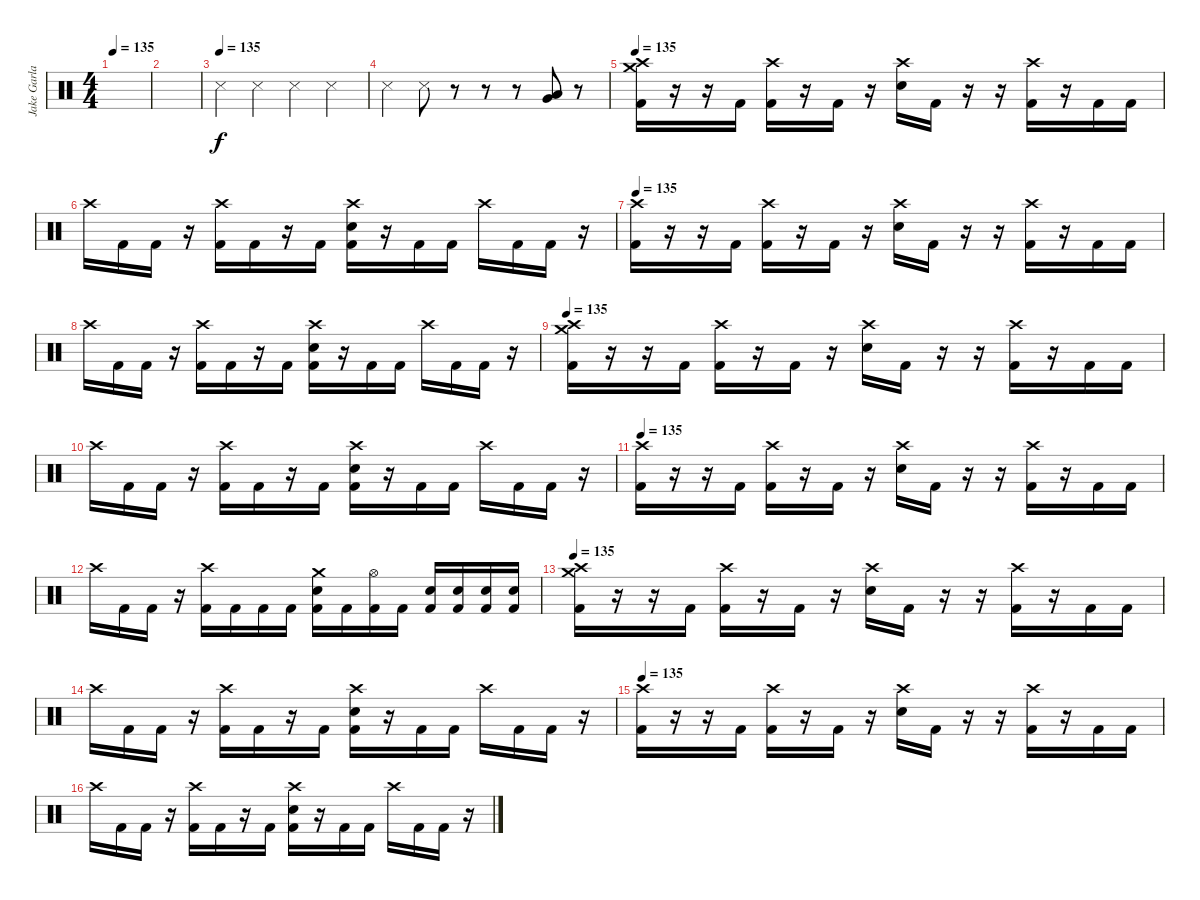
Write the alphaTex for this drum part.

\track ("Jake Garland" "Jake Garla") {instrument percussion}
\staff {score}
\articulation defaults
\ts (4 4)
\tempo 135
\clef neutral
\ks c
|
|
\tempo (135)
"Snare (side stick) 3".4 "Snare (side stick) 3".4 "Snare (side stick) 3".4 "Snare (side stick) 3".4 |
"Snare (side stick) 3".4 "Snare (side stick) 3".8 r.8 r.8 r.8 ("Low Floor Tom (hit)" "Very Low Tom (hit)").8 r.8 |
\tempo 135
("Crash high (hit)" "Crash medium (hit)" "Kick (hit) 2").16 r.16 r.16 "Kick (hit) 2".16 ("Crash high (hit)" "Kick (hit) 2").16 r.16 "Kick (hit) 2".16 r.16 ("Crash high (hit)" "Electric Snare (hit)").16 "Kick (hit) 2".16 r.16 r.16 ("Crash high (hit)" "Kick (hit) 2").16 r.16 "Kick (hit) 2".16 "Kick (hit) 2".16 |
"Crash high (hit)".16 "Kick (hit) 2".16 "Kick (hit) 2".16 r.16 ("Crash high (hit)" "Kick (hit) 2").16 "Kick (hit) 2".16 r.16 "Kick (hit) 2".16 ("Crash high (hit)" "Electric Snare (hit)" "Kick (hit) 2").16 r.16 "Kick (hit) 2".16 "Kick (hit) 2".16 "Crash high (hit)".16 "Kick (hit) 2".16 "Kick (hit) 2".16 r.16 |
\tempo 135
("Crash high (hit)" "Kick (hit) 2").16 r.16 r.16 "Kick (hit) 2".16 ("Crash high (hit)" "Kick (hit) 2").16 r.16 "Kick (hit) 2".16 r.16 ("Crash high (hit)" "Electric Snare (hit)").16 "Kick (hit) 2".16 r.16 r.16 ("Crash high (hit)" "Kick (hit) 2").16 r.16 "Kick (hit) 2".16 "Kick (hit) 2".16 |
"Crash high (hit)".16 "Kick (hit) 2".16 "Kick (hit) 2".16 r.16 ("Crash high (hit)" "Kick (hit) 2").16 "Kick (hit) 2".16 r.16 "Kick (hit) 2".16 ("Crash high (hit)" "Electric Snare (hit)" "Kick (hit) 2").16 r.16 "Kick (hit) 2".16 "Kick (hit) 2".16 "Crash high (hit)".16 "Kick (hit) 2".16 "Kick (hit) 2".16 r.16 |
\tempo 135
("Crash high (hit)" "Crash medium (hit)" "Kick (hit) 2").16 r.16 r.16 "Kick (hit) 2".16 ("Crash high (hit)" "Kick (hit) 2").16 r.16 "Kick (hit) 2".16 r.16 ("Crash high (hit)" "Electric Snare (hit)").16 "Kick (hit) 2".16 r.16 r.16 ("Crash high (hit)" "Kick (hit) 2").16 r.16 "Kick (hit) 2".16 "Kick (hit) 2".16 |
"Crash high (hit)".16 "Kick (hit) 2".16 "Kick (hit) 2".16 r.16 ("Crash high (hit)" "Kick (hit) 2").16 "Kick (hit) 2".16 r.16 "Kick (hit) 2".16 ("Crash high (hit)" "Electric Snare (hit)" "Kick (hit) 2").16 r.16 "Kick (hit) 2".16 "Kick (hit) 2".16 "Crash high (hit)".16 "Kick (hit) 2".16 "Kick (hit) 2".16 r.16 |
\tempo 135
("Crash high (hit)" "Kick (hit) 2").16 r.16 r.16 "Kick (hit) 2".16 ("Crash high (hit)" "Kick (hit) 2").16 r.16 "Kick (hit) 2".16 r.16 ("Crash high (hit)" "Electric Snare (hit)").16 "Kick (hit) 2".16 r.16 r.16 ("Crash high (hit)" "Kick (hit) 2").16 r.16 "Kick (hit) 2".16 "Kick (hit) 2".16 |
"Crash high (hit)".16 "Kick (hit) 2".16 "Kick (hit) 2".16 r.16 ("Crash high (hit)" "Kick (hit) 2").16 "Kick (hit) 2".16 "Kick (hit) 2".16 "Kick (hit) 2".16 ("Crash medium (hit)" "Electric Snare (hit)" "Kick (hit) 2").16 "Kick (hit) 2".16 ("Hi-Hat (open)" "Kick (hit) 2").16 "Kick (hit) 2".16 ("Electric Snare (hit)" "Kick (hit) 2").16 ("Electric Snare (hit)" "Kick (hit) 2").16 ("Electric Snare (hit)" "Kick (hit) 2").16 ("Electric Snare (hit)" "Kick (hit) 2").16 |
\tempo 135
("Crash high (hit)" "Crash medium (hit)" "Kick (hit) 2").16 r.16 r.16 "Kick (hit) 2".16 ("Crash high (hit)" "Kick (hit) 2").16 r.16 "Kick (hit) 2".16 r.16 ("Crash high (hit)" "Electric Snare (hit)").16 "Kick (hit) 2".16 r.16 r.16 ("Crash high (hit)" "Kick (hit) 2").16 r.16 "Kick (hit) 2".16 "Kick (hit) 2".16 |
"Crash high (hit)".16 "Kick (hit) 2".16 "Kick (hit) 2".16 r.16 ("Crash high (hit)" "Kick (hit) 2").16 "Kick (hit) 2".16 r.16 "Kick (hit) 2".16 ("Crash high (hit)" "Electric Snare (hit)" "Kick (hit) 2").16 r.16 "Kick (hit) 2".16 "Kick (hit) 2".16 "Crash high (hit)".16 "Kick (hit) 2".16 "Kick (hit) 2".16 r.16 |
\tempo 135
("Crash high (hit)" "Kick (hit) 2").16 r.16 r.16 "Kick (hit) 2".16 ("Crash high (hit)" "Kick (hit) 2").16 r.16 "Kick (hit) 2".16 r.16 ("Crash high (hit)" "Electric Snare (hit)").16 "Kick (hit) 2".16 r.16 r.16 ("Crash high (hit)" "Kick (hit) 2").16 r.16 "Kick (hit) 2".16 "Kick (hit) 2".16 |
"Crash high (hit)".16 "Kick (hit) 2".16 "Kick (hit) 2".16 r.16 ("Crash high (hit)" "Kick (hit) 2").16 "Kick (hit) 2".16 r.16 "Kick (hit) 2".16 ("Crash high (hit)" "Electric Snare (hit)" "Kick (hit) 2").16 r.16 "Kick (hit) 2".16 "Kick (hit) 2".16 "Crash high (hit)".16 "Kick (hit) 2".16 "Kick (hit) 2".16 r.16
